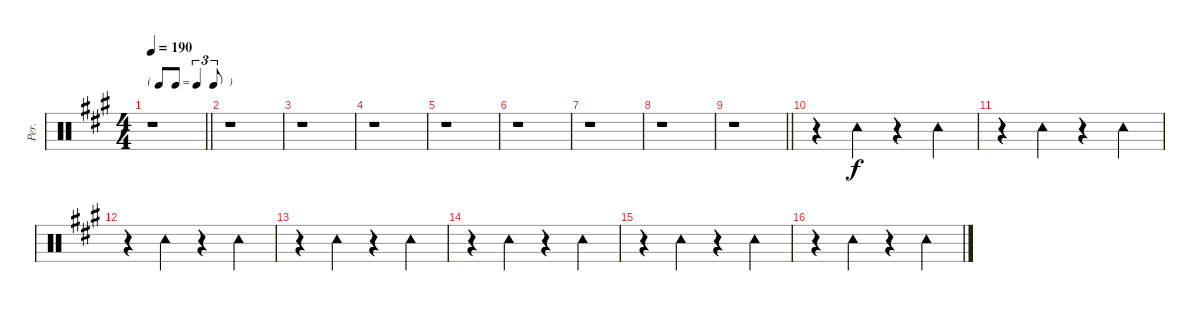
\track ("Per." "Per.") {instrument percussion}
\staff {score}
\articulation defaults
\ts (4 4)
\tf triplet8th
\tempo 190
\clef neutral
\barLineRight lightlight
\ks a
r.1{dy f} |
r.1 |
r.1 |
r.1 |
r.1 |
r.1 |
r.1 |
r.1 |
\barLineRight lightlight
r.1 |
r.4 "Tambourine (hit)".4 r.4 "Tambourine (hit)".4 |
r.4 "Tambourine (hit)".4 r.4 "Tambourine (hit)".4 |
r.4 "Tambourine (hit)".4 r.4 "Tambourine (hit)".4 |
r.4 "Tambourine (hit)".4 r.4 "Tambourine (hit)".4 |
r.4 "Tambourine (hit)".4 r.4 "Tambourine (hit)".4 |
r.4 "Tambourine (hit)".4 r.4 "Tambourine (hit)".4 |
r.4 "Tambourine (hit)".4 r.4 "Tambourine (hit)".4
